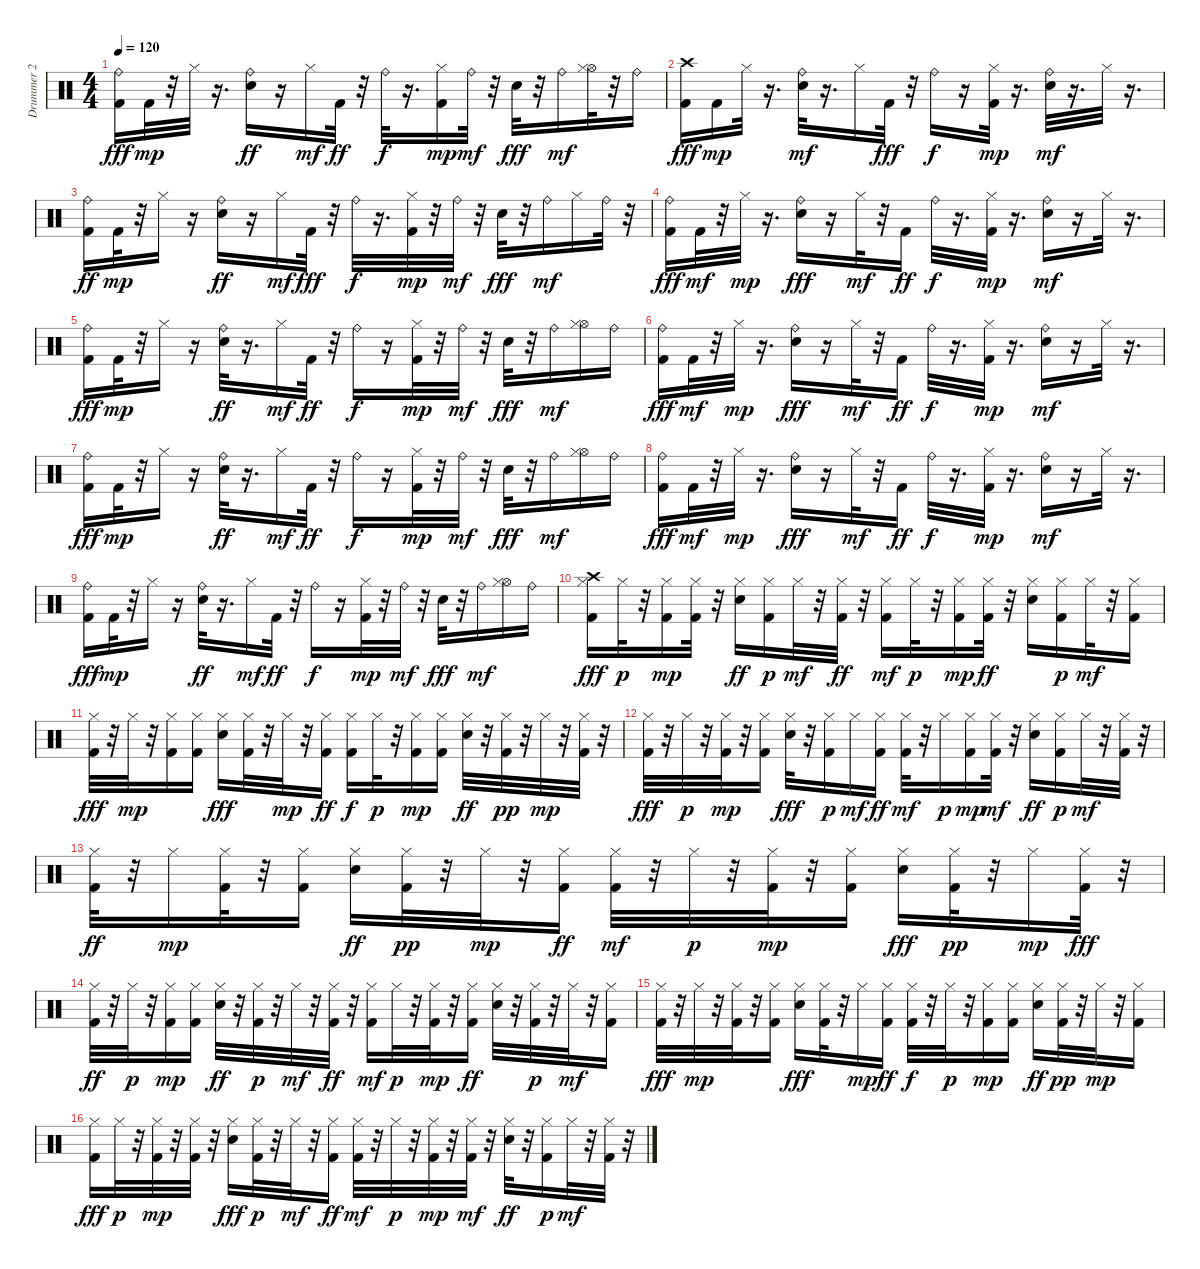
\track ("Drummer 2" "Drummer 2") {instrument percussion}
\staff {score}
\articulation defaults
\ts (4 4)
\tempo 120
\clef neutral
\ks c
("Kick (hit) 2" "Ride (bell)").16{dy fff} "Kick (hit) 2".32{dy mp} r.32 "Hi-Hat (closed)".32 r.16{d} ("Ride (bell)" "Snare (hit) 2").16{dy ff} r.16 "Hi-Hat (closed)".16{dy mf} "Kick (hit) 2".32{dy ff} r.32 "Ride (bell)".32{dy f} r.16{d} ("Kick (hit) 2" "Hi-Hat (closed)").16{dy mp} "Ride (bell)".32{dy mf} r.32 "Snare (hit) 2".32{dy fff} r.32 "Ride (bell)".16{dy mf} ("Hi-Hat (open)" "Hi-Hat (closed)").32 r.32 "Ride (bell)".16 |
("Kick (hit) 2" "Crash high (hit)").16{dy fff} "Kick (hit) 2".16{dy mp} "Hi-Hat (closed)".32 r.16{d} ("Snare (hit) 2" "Ride (bell)").32{dy mf} r.16{d} "Hi-Hat (closed)".16 "Kick (hit) 2".32{dy fff} r.32 "Ride (bell)".16{dy f} r.16 ("Kick (hit) 2" "Hi-Hat (closed)").32{dy mp} r.16{d} ("Snare (hit) 2" "Ride (bell)").32{dy mf} r.16{d} "Hi-Hat (closed)".32 r.16{d} |
("Kick (hit) 2" "Ride (bell)").16{dy ff} "Kick (hit) 2".32{dy mp} r.32 "Hi-Hat (closed)".16 r.16 ("Ride (bell)" "Snare (hit) 2").16{dy ff} r.16 "Hi-Hat (closed)".16{dy mf} "Kick (hit) 2".32{dy fff} r.32 "Ride (bell)".32{dy f} r.16{d} ("Kick (hit) 2" "Hi-Hat (closed)").32{dy mp} r.32 "Ride (bell)".32{dy mf} r.32 "Snare (hit) 2".32{dy fff} r.32 "Ride (bell)".16{dy mf} "Hi-Hat (closed)".16 "Ride (bell)".32 r.32 |
("Kick (hit) 2" "Ride (bell)").16{dy fff} "Kick (hit) 2".32{dy mf} r.32 "Hi-Hat (closed)".32{dy mp} r.16{d} ("Ride (bell)" "Snare (hit) 2").16{dy fff} r.16 "Hi-Hat (closed)".32{dy mf} r.32 "Kick (hit) 2".16{dy ff} "Ride (bell)".32{dy f} r.16{d} ("Kick (hit) 2" "Hi-Hat (closed)").32{dy mp} r.16{d} ("Snare (hit) 2" "Ride (bell)").16{dy mf} r.16 "Hi-Hat (closed)".32 r.16{d} |
("Kick (hit) 2" "Ride (bell)").16{dy fff} "Kick (hit) 2".32{dy mp} r.32 "Hi-Hat (closed)".16 r.16 ("Ride (bell)" "Snare (hit) 2").32{dy ff} r.16{d} "Hi-Hat (closed)".16{dy mf} "Kick (hit) 2".32{dy ff} r.32 "Ride (bell)".16{dy f} r.16 ("Kick (hit) 2" "Hi-Hat (closed)").32{dy mp} r.32 "Ride (bell)".32{dy mf} r.32 "Snare (hit) 2".32{dy fff} r.32 "Ride (bell)".16{dy mf} ("Hi-Hat (open)" "Hi-Hat (closed)").16 "Ride (bell)".16 |
("Kick (hit) 2" "Ride (bell)").16{dy fff} "Kick (hit) 2".32{dy mf} r.32 "Hi-Hat (closed)".32{dy mp} r.16{d} ("Ride (bell)" "Snare (hit) 2").16{dy fff} r.16 "Hi-Hat (closed)".32{dy mf} r.32 "Kick (hit) 2".16{dy ff} "Ride (bell)".32{dy f} r.16{d} ("Kick (hit) 2" "Hi-Hat (closed)").32{dy mp} r.16{d} ("Snare (hit) 2" "Ride (bell)").16{dy mf} r.16 "Hi-Hat (closed)".32 r.16{d} |
("Kick (hit) 2" "Ride (bell)").16{dy fff} "Kick (hit) 2".32{dy mp} r.32 "Hi-Hat (closed)".16 r.16 ("Ride (bell)" "Snare (hit) 2").32{dy ff} r.16{d} "Hi-Hat (closed)".16{dy mf} "Kick (hit) 2".32{dy ff} r.32 "Ride (bell)".16{dy f} r.16 ("Kick (hit) 2" "Hi-Hat (closed)").32{dy mp} r.32 "Ride (bell)".32{dy mf} r.32 "Snare (hit) 2".32{dy fff} r.32 "Ride (bell)".16{dy mf} ("Hi-Hat (open)" "Hi-Hat (closed)").16 "Ride (bell)".16 |
("Kick (hit) 2" "Ride (bell)").16{dy fff} "Kick (hit) 2".32{dy mf} r.32 "Hi-Hat (closed)".32{dy mp} r.16{d} ("Ride (bell)" "Snare (hit) 2").16{dy fff} r.16 "Hi-Hat (closed)".32{dy mf} r.32 "Kick (hit) 2".16{dy ff} "Ride (bell)".32{dy f} r.16{d} ("Kick (hit) 2" "Hi-Hat (closed)").32{dy mp} r.16{d} ("Snare (hit) 2" "Ride (bell)").16{dy mf} r.16 "Hi-Hat (closed)".32 r.16{d} |
("Kick (hit) 2" "Ride (bell)").16{dy fff} "Kick (hit) 2".32{dy mp} r.32 "Hi-Hat (closed)".16 r.16 ("Ride (bell)" "Snare (hit) 2").32{dy ff} r.16{d} "Hi-Hat (closed)".16{dy mf} "Kick (hit) 2".32{dy ff} r.32 "Ride (bell)".16{dy f} r.16 ("Kick (hit) 2" "Hi-Hat (closed)").32{dy mp} r.32 "Ride (bell)".32{dy mf} r.32 "Snare (hit) 2".32{dy fff} r.32 "Ride (bell)".16{dy mf} ("Hi-Hat (open)" "Hi-Hat (closed)").16 "Ride (bell)".16 |
("Kick (hit) 2" "Hi-Hat (closed)" "Crash high (hit)").16{dy fff} "Hi-Hat (closed)".32{dy p} r.32 ("Kick (hit) 2" "Hi-Hat (closed)").16{dy mp} ("Kick (hit) 2" "Hi-Hat (closed)").32 r.32 ("Hi-Hat (closed)" "Snare (hit) 2").16{dy ff} ("Kick (hit) 2" "Hi-Hat (closed)").16{dy p} "Hi-Hat (closed)".32{dy mf} r.32 ("Kick (hit) 2" "Hi-Hat (closed)").32{dy ff} r.32 ("Kick (hit) 2" "Hi-Hat (closed)").16{dy mf} "Hi-Hat (closed)".32{dy p} r.32 ("Kick (hit) 2" "Hi-Hat (closed)").16{dy mp} ("Kick (hit) 2" "Hi-Hat (closed)").32{dy ff} r.32 ("Hi-Hat (closed)" "Snare (hit) 2").16 ("Kick (hit) 2" "Hi-Hat (closed)").16{dy p} "Hi-Hat (closed)".32{dy mf} r.32 ("Kick (hit) 2" "Hi-Hat (closed)").16 |
("Hi-Hat (closed)" "Kick (hit) 2").32{dy fff} r.32 "Hi-Hat (closed)".32{dy mp} r.32 ("Kick (hit) 2" "Hi-Hat (closed)").16 ("Kick (hit) 2" "Hi-Hat (closed)").16 ("Hi-Hat (closed)" "Snare (hit) 2").16{dy fff} ("Hi-Hat (closed)" "Kick (hit) 2").32 r.32 "Hi-Hat (closed)".32{dy mp} r.32 ("Kick (hit) 2" "Hi-Hat (closed)").16{dy ff} ("Hi-Hat (closed)" "Kick (hit) 2").16{dy f} "Hi-Hat (closed)".32{dy p} r.32 ("Kick (hit) 2" "Hi-Hat (closed)").16{dy mp} ("Kick (hit) 2" "Hi-Hat (closed)").16 ("Hi-Hat (closed)" "Snare (hit) 2").32{dy ff} r.32 ("Kick (hit) 2" "Hi-Hat (closed)").32{dy pp} r.32 "Hi-Hat (closed)".32{dy mp} r.32 ("Kick (hit) 2" "Hi-Hat (closed)").32 r.32 |
("Hi-Hat (closed)" "Kick (hit) 2").32{dy fff} r.32 "Hi-Hat (closed)".32{dy p} r.32 ("Kick (hit) 2" "Hi-Hat (closed)").32{dy mp} r.32 ("Kick (hit) 2" "Hi-Hat (closed)").16 ("Hi-Hat (closed)" "Snare (hit) 2").32{dy fff} r.32 ("Kick (hit) 2" "Hi-Hat (closed)").16{dy p} "Hi-Hat (closed)".16{dy mf} ("Hi-Hat (closed)" "Kick (hit) 2").16{dy ff} ("Kick (hit) 2" "Hi-Hat (closed)").32{dy mf} r.32 "Hi-Hat (closed)".16{dy p} ("Kick (hit) 2" "Hi-Hat (closed)").16{dy mp} ("Hi-Hat (closed)" "Kick (hit) 2").32{dy mf} r.32 ("Hi-Hat (closed)" "Snare (hit) 2").16{dy ff} ("Kick (hit) 2" "Hi-Hat (closed)").16{dy p} "Hi-Hat (closed)".32{dy mf} r.32 ("Kick (hit) 2" "Hi-Hat (closed)").32 r.32 |
("Kick (hit) 2" "Hi-Hat (closed)").32{dy ff} r.32 "Hi-Hat (closed)".16{dy mp} ("Kick (hit) 2" "Hi-Hat (closed)").32 r.32 ("Kick (hit) 2" "Hi-Hat (closed)").16 ("Hi-Hat (closed)" "Snare (hit) 2").16{dy ff} ("Kick (hit) 2" "Hi-Hat (closed)").32{dy pp} r.32 "Hi-Hat (closed)".32{dy mp} r.32 ("Kick (hit) 2" "Hi-Hat (closed)").16{dy ff} ("Kick (hit) 2" "Hi-Hat (closed)").32{dy mf} r.32 "Hi-Hat (closed)".32{dy p} r.32 ("Kick (hit) 2" "Hi-Hat (closed)").32{dy mp} r.32 ("Kick (hit) 2" "Hi-Hat (closed)").16 ("Hi-Hat (closed)" "Snare (hit) 2").16{dy fff} ("Kick (hit) 2" "Hi-Hat (closed)").32{dy pp} r.32 "Hi-Hat (closed)".16{dy mp} ("Hi-Hat (closed)" "Kick (hit) 2").32{dy fff} r.32 |
("Kick (hit) 2" "Hi-Hat (closed)").32{dy ff} r.32 "Hi-Hat (closed)".32{dy p} r.32 ("Kick (hit) 2" "Hi-Hat (closed)").16{dy mp} ("Kick (hit) 2" "Hi-Hat (closed)").16 ("Hi-Hat (closed)" "Snare (hit) 2").32{dy ff} r.32 ("Kick (hit) 2" "Hi-Hat (closed)").32{dy p} r.32 "Hi-Hat (closed)".32{dy mf} r.32 ("Kick (hit) 2" "Hi-Hat (closed)").32{dy ff} r.32 ("Kick (hit) 2" "Hi-Hat (closed)").16{dy mf} "Hi-Hat (closed)".32{dy p} r.32 ("Kick (hit) 2" "Hi-Hat (closed)").32{dy mp} r.32 ("Kick (hit) 2" "Hi-Hat (closed)").16{dy ff} ("Hi-Hat (closed)" "Snare (hit) 2").32 r.32 ("Kick (hit) 2" "Hi-Hat (closed)").32{dy p} r.32 "Hi-Hat (closed)".32{dy mf} r.32 ("Kick (hit) 2" "Hi-Hat (closed)").16 |
("Hi-Hat (closed)" "Kick (hit) 2").32{dy fff} r.32 "Hi-Hat (closed)".32{dy mp} r.32 ("Kick (hit) 2" "Hi-Hat (closed)").32 r.32 ("Kick (hit) 2" "Hi-Hat (closed)").16 ("Hi-Hat (closed)" "Snare (hit) 2").16{dy fff} ("Hi-Hat (closed)" "Kick (hit) 2").32 r.32 "Hi-Hat (closed)".16{dy mp} ("Kick (hit) 2" "Hi-Hat (closed)").16{dy ff} ("Hi-Hat (closed)" "Kick (hit) 2").32{dy f} r.32 "Hi-Hat (closed)".32{dy p} r.32 ("Kick (hit) 2" "Hi-Hat (closed)").16{dy mp} ("Kick (hit) 2" "Hi-Hat (closed)").16 ("Hi-Hat (closed)" "Snare (hit) 2").16{dy ff} ("Kick (hit) 2" "Hi-Hat (closed)").32{dy pp} r.32 "Hi-Hat (closed)".32{dy mp} r.32 ("Kick (hit) 2" "Hi-Hat (closed)").16 |
("Hi-Hat (closed)" "Kick (hit) 2").16{dy fff} "Hi-Hat (closed)".32{dy p} r.32 ("Kick (hit) 2" "Hi-Hat (closed)").32{dy mp} r.32 ("Kick (hit) 2" "Hi-Hat (closed)").32 r.32 ("Hi-Hat (closed)" "Snare (hit) 2").16{dy fff} ("Kick (hit) 2" "Hi-Hat (closed)").32{dy p} r.32 "Hi-Hat (closed)".32{dy mf} r.32 ("Hi-Hat (closed)" "Kick (hit) 2").16{dy ff} ("Kick (hit) 2" "Hi-Hat (closed)").32{dy mf} r.32 "Hi-Hat (closed)".32{dy p} r.32 ("Kick (hit) 2" "Hi-Hat (closed)").32{dy mp} r.32 ("Hi-Hat (closed)" "Kick (hit) 2").32{dy mf} r.32 ("Hi-Hat (closed)" "Snare (hit) 2").32{dy ff} r.32 ("Kick (hit) 2" "Hi-Hat (closed)").16{dy p} "Hi-Hat (closed)".32{dy mf} r.32 ("Kick (hit) 2" "Hi-Hat (closed)").32 r.32
